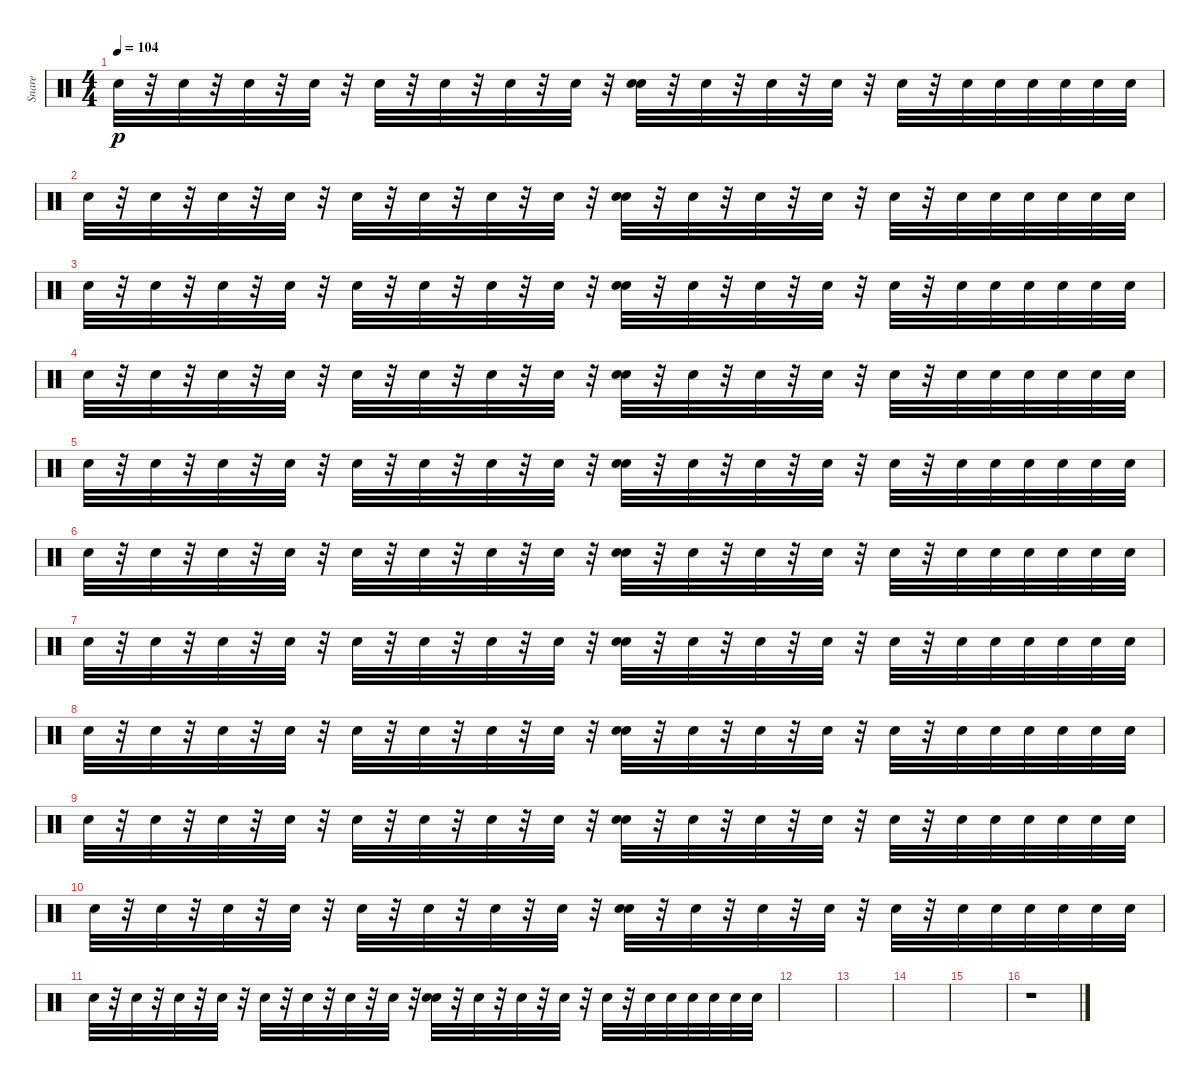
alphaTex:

\track ("Snare" "Snare") {instrument percussion}
\staff {score}
\articulation defaults
\ts (4 4)
\tempo 104
\clef neutral
\ks c "Snare (hit) 2".32{dy p}
r.32 "Snare (hit) 2".32 r.32 "Snare (hit) 2".32 r.32 "Snare (hit) 2".32 r.32 "Snare (hit) 2".32 r.32 "Snare (hit) 2".32 r.32 "Snare (hit) 2".32 r.32 "Snare (hit) 2".32 r.32 ("Snare (hit) 2" "Snare (hit) 2").32 r.32 "Snare (hit) 2".32 r.32 "Snare (hit) 2".32 r.32 "Snare (hit) 2".32 r.32 "Snare (hit) 2".32 r.32 "Snare (hit) 2".32 "Snare (hit) 2".32 "Snare (hit) 2".32 "Snare (hit) 2".32 "Snare (hit) 2".32 "Snare (hit) 2".32 |
"Snare (hit) 2".32 r.32 "Snare (hit) 2".32 r.32 "Snare (hit) 2".32 r.32 "Snare (hit) 2".32 r.32 "Snare (hit) 2".32 r.32 "Snare (hit) 2".32 r.32 "Snare (hit) 2".32 r.32 "Snare (hit) 2".32 r.32 ("Snare (hit) 2" "Snare (hit) 2").32 r.32 "Snare (hit) 2".32 r.32 "Snare (hit) 2".32 r.32 "Snare (hit) 2".32 r.32 "Snare (hit) 2".32 r.32 "Snare (hit) 2".32 "Snare (hit) 2".32 "Snare (hit) 2".32 "Snare (hit) 2".32 "Snare (hit) 2".32 "Snare (hit) 2".32 |
"Snare (hit) 2".32 r.32 "Snare (hit) 2".32 r.32 "Snare (hit) 2".32 r.32 "Snare (hit) 2".32 r.32 "Snare (hit) 2".32 r.32 "Snare (hit) 2".32 r.32 "Snare (hit) 2".32 r.32 "Snare (hit) 2".32 r.32 ("Snare (hit) 2" "Snare (hit) 2").32 r.32 "Snare (hit) 2".32 r.32 "Snare (hit) 2".32 r.32 "Snare (hit) 2".32 r.32 "Snare (hit) 2".32 r.32 "Snare (hit) 2".32 "Snare (hit) 2".32 "Snare (hit) 2".32 "Snare (hit) 2".32 "Snare (hit) 2".32 "Snare (hit) 2".32 |
"Snare (hit) 2".32 r.32 "Snare (hit) 2".32 r.32 "Snare (hit) 2".32 r.32 "Snare (hit) 2".32 r.32 "Snare (hit) 2".32 r.32 "Snare (hit) 2".32 r.32 "Snare (hit) 2".32 r.32 "Snare (hit) 2".32 r.32 ("Snare (hit) 2" "Snare (hit) 2").32 r.32 "Snare (hit) 2".32 r.32 "Snare (hit) 2".32 r.32 "Snare (hit) 2".32 r.32 "Snare (hit) 2".32 r.32 "Snare (hit) 2".32 "Snare (hit) 2".32 "Snare (hit) 2".32 "Snare (hit) 2".32 "Snare (hit) 2".32 "Snare (hit) 2".32 |
"Snare (hit) 2".32 r.32 "Snare (hit) 2".32 r.32 "Snare (hit) 2".32 r.32 "Snare (hit) 2".32 r.32 "Snare (hit) 2".32 r.32 "Snare (hit) 2".32 r.32 "Snare (hit) 2".32 r.32 "Snare (hit) 2".32 r.32 ("Snare (hit) 2" "Snare (hit) 2").32 r.32 "Snare (hit) 2".32 r.32 "Snare (hit) 2".32 r.32 "Snare (hit) 2".32 r.32 "Snare (hit) 2".32 r.32 "Snare (hit) 2".32 "Snare (hit) 2".32 "Snare (hit) 2".32 "Snare (hit) 2".32 "Snare (hit) 2".32 "Snare (hit) 2".32 |
"Snare (hit) 2".32 r.32 "Snare (hit) 2".32 r.32 "Snare (hit) 2".32 r.32 "Snare (hit) 2".32 r.32 "Snare (hit) 2".32 r.32 "Snare (hit) 2".32 r.32 "Snare (hit) 2".32 r.32 "Snare (hit) 2".32 r.32 ("Snare (hit) 2" "Snare (hit) 2").32 r.32 "Snare (hit) 2".32 r.32 "Snare (hit) 2".32 r.32 "Snare (hit) 2".32 r.32 "Snare (hit) 2".32 r.32 "Snare (hit) 2".32 "Snare (hit) 2".32 "Snare (hit) 2".32 "Snare (hit) 2".32 "Snare (hit) 2".32 "Snare (hit) 2".32 |
"Snare (hit) 2".32 r.32 "Snare (hit) 2".32 r.32 "Snare (hit) 2".32 r.32 "Snare (hit) 2".32 r.32 "Snare (hit) 2".32 r.32 "Snare (hit) 2".32 r.32 "Snare (hit) 2".32 r.32 "Snare (hit) 2".32 r.32 ("Snare (hit) 2" "Snare (hit) 2").32 r.32 "Snare (hit) 2".32 r.32 "Snare (hit) 2".32 r.32 "Snare (hit) 2".32 r.32 "Snare (hit) 2".32 r.32 "Snare (hit) 2".32 "Snare (hit) 2".32 "Snare (hit) 2".32 "Snare (hit) 2".32 "Snare (hit) 2".32 "Snare (hit) 2".32 |
"Snare (hit) 2".32 r.32 "Snare (hit) 2".32 r.32 "Snare (hit) 2".32 r.32 "Snare (hit) 2".32 r.32 "Snare (hit) 2".32 r.32 "Snare (hit) 2".32 r.32 "Snare (hit) 2".32 r.32 "Snare (hit) 2".32 r.32 ("Snare (hit) 2" "Snare (hit) 2").32 r.32 "Snare (hit) 2".32 r.32 "Snare (hit) 2".32 r.32 "Snare (hit) 2".32 r.32 "Snare (hit) 2".32 r.32 "Snare (hit) 2".32 "Snare (hit) 2".32 "Snare (hit) 2".32 "Snare (hit) 2".32 "Snare (hit) 2".32 "Snare (hit) 2".32 |
"Snare (hit) 2".32 r.32 "Snare (hit) 2".32 r.32 "Snare (hit) 2".32 r.32 "Snare (hit) 2".32 r.32 "Snare (hit) 2".32 r.32 "Snare (hit) 2".32 r.32 "Snare (hit) 2".32 r.32 "Snare (hit) 2".32 r.32 ("Snare (hit) 2" "Snare (hit) 2").32 r.32 "Snare (hit) 2".32 r.32 "Snare (hit) 2".32 r.32 "Snare (hit) 2".32 r.32 "Snare (hit) 2".32 r.32 "Snare (hit) 2".32 "Snare (hit) 2".32 "Snare (hit) 2".32 "Snare (hit) 2".32 "Snare (hit) 2".32 "Snare (hit) 2".32 |
"Snare (hit) 2".32 r.32 "Snare (hit) 2".32 r.32 "Snare (hit) 2".32 r.32 "Snare (hit) 2".32 r.32 "Snare (hit) 2".32 r.32 "Snare (hit) 2".32 r.32 "Snare (hit) 2".32 r.32 "Snare (hit) 2".32 r.32 ("Snare (hit) 2" "Snare (hit) 2").32 r.32 "Snare (hit) 2".32 r.32 "Snare (hit) 2".32 r.32 "Snare (hit) 2".32 r.32 "Snare (hit) 2".32 r.32 "Snare (hit) 2".32 "Snare (hit) 2".32 "Snare (hit) 2".32 "Snare (hit) 2".32 "Snare (hit) 2".32 "Snare (hit) 2".32 |
"Snare (hit) 2".32 r.32 "Snare (hit) 2".32 r.32 "Snare (hit) 2".32 r.32 "Snare (hit) 2".32 r.32 "Snare (hit) 2".32 r.32 "Snare (hit) 2".32 r.32 "Snare (hit) 2".32 r.32 "Snare (hit) 2".32 r.32 ("Snare (hit) 2" "Snare (hit) 2").32 r.32 "Snare (hit) 2".32 r.32 "Snare (hit) 2".32 r.32 "Snare (hit) 2".32 r.32 "Snare (hit) 2".32 r.32 "Snare (hit) 2".32 "Snare (hit) 2".32 "Snare (hit) 2".32 "Snare (hit) 2".32 "Snare (hit) 2".32 "Snare (hit) 2".32 |
|
|
|
|
r.1
